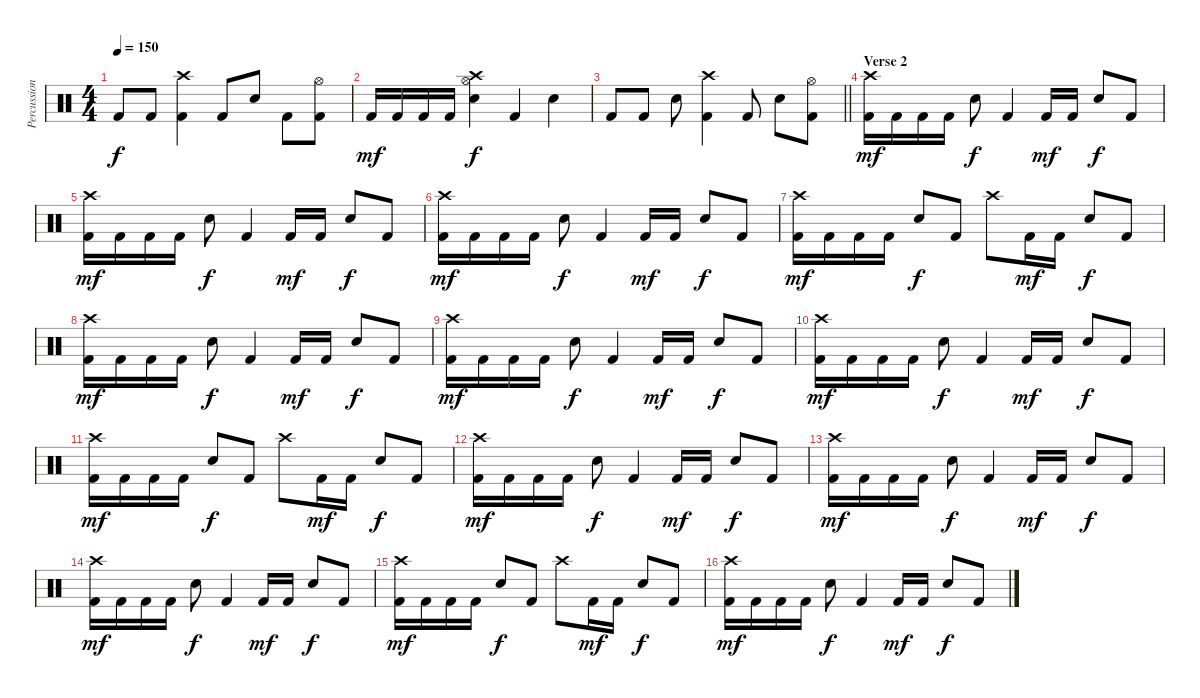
\track ("Percussion" "Percussion") {instrument percussion}
\staff {score}
\articulation defaults
\ts (4 4)
\tempo 150
\clef neutral
\ks c "Kick (hit) 2".8{dy f} "Kick (hit) 2".8
("Crash high (hit)" "Kick (hit) 2").4 "Kick (hit) 2".8 "Electric Snare (hit)".8 "Kick (hit) 2".8 ("Hi-Hat (open)" "Kick (hit) 2").8 |
"Kick (hit) 2".16{dy mf} "Kick (hit) 2".16 "Kick (hit) 2".16 "Kick (hit) 2".16 ("Crash high (hit)" "Electric Snare (hit)" "Hi-Hat (open)").4{dy f} "Kick (hit) 2".4 "Electric Snare (hit)".4 |
\barLineRight lightlight "Kick (hit) 2".8 "Kick (hit) 2".8 "Electric Snare (hit)".8
("Crash high (hit)" "Kick (hit) 2").4 "Kick (hit) 2".8 "Electric Snare (hit)".8 ("Hi-Hat (open)" "Kick (hit) 2").8 |
\section ("" "Verse 2")
("Crash high (hit)" "Kick (hit) 2").16{dy mf} "Kick (hit) 2".16 "Kick (hit) 2".16 "Kick (hit) 2".16 "Electric Snare (hit)".8{dy f} "Kick (hit) 2".4 "Kick (hit) 2".16{dy mf} "Kick (hit) 2".16 "Electric Snare (hit)".8{dy f} "Kick (hit) 2".8 |
("Crash high (hit)" "Kick (hit) 2").16{dy mf} "Kick (hit) 2".16 "Kick (hit) 2".16 "Kick (hit) 2".16 "Electric Snare (hit)".8{dy f} "Kick (hit) 2".4 "Kick (hit) 2".16{dy mf} "Kick (hit) 2".16 "Electric Snare (hit)".8{dy f} "Kick (hit) 2".8 |
("Crash high (hit)" "Kick (hit) 2").16{dy mf} "Kick (hit) 2".16 "Kick (hit) 2".16 "Kick (hit) 2".16 "Electric Snare (hit)".8{dy f} "Kick (hit) 2".4 "Kick (hit) 2".16{dy mf} "Kick (hit) 2".16 "Electric Snare (hit)".8{dy f} "Kick (hit) 2".8 |
("Crash high (hit)" "Kick (hit) 2").16{dy mf} "Kick (hit) 2".16 "Kick (hit) 2".16 "Kick (hit) 2".16 "Electric Snare (hit)".8{dy f} "Kick (hit) 2".8 "Crash high (hit)".8 "Kick (hit) 2".16{dy mf} "Kick (hit) 2".16 "Electric Snare (hit)".8{dy f} "Kick (hit) 2".8 |
("Crash high (hit)" "Kick (hit) 2").16{dy mf} "Kick (hit) 2".16 "Kick (hit) 2".16 "Kick (hit) 2".16 "Electric Snare (hit)".8{dy f} "Kick (hit) 2".4 "Kick (hit) 2".16{dy mf} "Kick (hit) 2".16 "Electric Snare (hit)".8{dy f} "Kick (hit) 2".8 |
("Crash high (hit)" "Kick (hit) 2").16{dy mf} "Kick (hit) 2".16 "Kick (hit) 2".16 "Kick (hit) 2".16 "Electric Snare (hit)".8{dy f} "Kick (hit) 2".4 "Kick (hit) 2".16{dy mf} "Kick (hit) 2".16 "Electric Snare (hit)".8{dy f} "Kick (hit) 2".8 |
("Crash high (hit)" "Kick (hit) 2").16{dy mf} "Kick (hit) 2".16 "Kick (hit) 2".16 "Kick (hit) 2".16 "Electric Snare (hit)".8{dy f} "Kick (hit) 2".4 "Kick (hit) 2".16{dy mf} "Kick (hit) 2".16 "Electric Snare (hit)".8{dy f} "Kick (hit) 2".8 |
("Crash high (hit)" "Kick (hit) 2").16{dy mf} "Kick (hit) 2".16 "Kick (hit) 2".16 "Kick (hit) 2".16 "Electric Snare (hit)".8{dy f} "Kick (hit) 2".8 "Crash high (hit)".8 "Kick (hit) 2".16{dy mf} "Kick (hit) 2".16 "Electric Snare (hit)".8{dy f} "Kick (hit) 2".8 |
("Crash high (hit)" "Kick (hit) 2").16{dy mf} "Kick (hit) 2".16 "Kick (hit) 2".16 "Kick (hit) 2".16 "Electric Snare (hit)".8{dy f} "Kick (hit) 2".4 "Kick (hit) 2".16{dy mf} "Kick (hit) 2".16 "Electric Snare (hit)".8{dy f} "Kick (hit) 2".8 |
("Crash high (hit)" "Kick (hit) 2").16{dy mf} "Kick (hit) 2".16 "Kick (hit) 2".16 "Kick (hit) 2".16 "Electric Snare (hit)".8{dy f} "Kick (hit) 2".4 "Kick (hit) 2".16{dy mf} "Kick (hit) 2".16 "Electric Snare (hit)".8{dy f} "Kick (hit) 2".8 |
("Crash high (hit)" "Kick (hit) 2").16{dy mf} "Kick (hit) 2".16 "Kick (hit) 2".16 "Kick (hit) 2".16 "Electric Snare (hit)".8{dy f} "Kick (hit) 2".4 "Kick (hit) 2".16{dy mf} "Kick (hit) 2".16 "Electric Snare (hit)".8{dy f} "Kick (hit) 2".8 |
("Crash high (hit)" "Kick (hit) 2").16{dy mf} "Kick (hit) 2".16 "Kick (hit) 2".16 "Kick (hit) 2".16 "Electric Snare (hit)".8{dy f} "Kick (hit) 2".8 "Crash high (hit)".8 "Kick (hit) 2".16{dy mf} "Kick (hit) 2".16 "Electric Snare (hit)".8{dy f} "Kick (hit) 2".8 |
("Crash high (hit)" "Kick (hit) 2").16{dy mf} "Kick (hit) 2".16 "Kick (hit) 2".16 "Kick (hit) 2".16 "Electric Snare (hit)".8{dy f} "Kick (hit) 2".4 "Kick (hit) 2".16{dy mf} "Kick (hit) 2".16 "Electric Snare (hit)".8{dy f} "Kick (hit) 2".8
